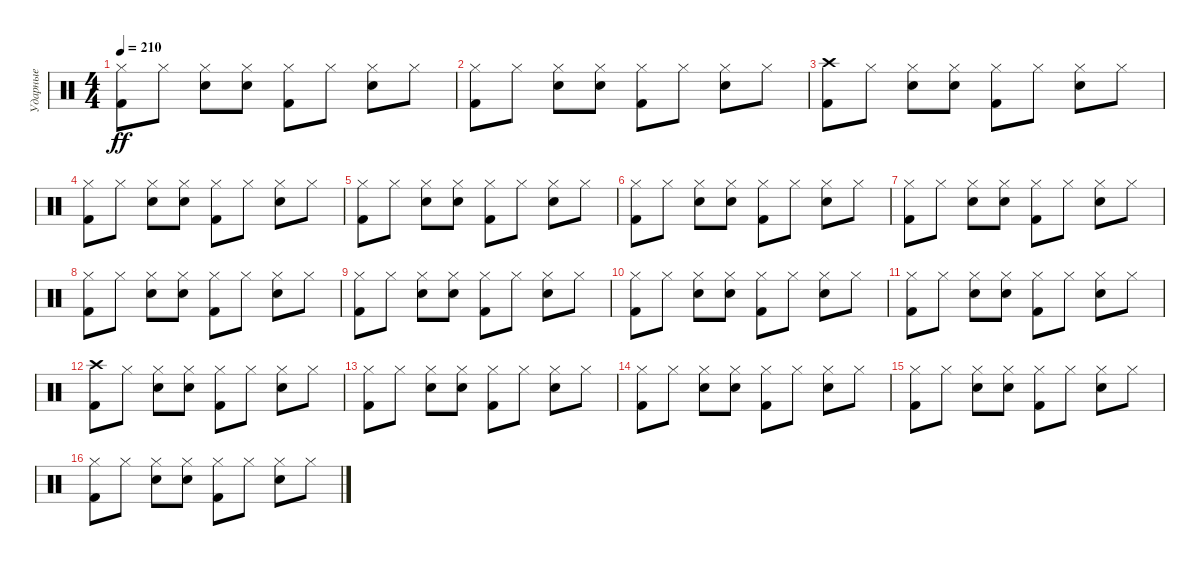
\track ("Ударные" "Ударные") {instrument percussion}
\staff {score}
\articulation defaults
\ts (4 4)
\tempo 210
\clef neutral
\ks c
("Hi-Hat (closed)" "Kick (hit) 2").8{dy ff} "Hi-Hat (closed)".8 ("Hi-Hat (closed)" "Snare (hit) 2").8 ("Hi-Hat (closed)" "Snare (hit) 2").8 ("Hi-Hat (closed)" "Kick (hit) 2").8 "Hi-Hat (closed)".8 ("Hi-Hat (closed)" "Snare (hit) 2").8 "Hi-Hat (closed)".8 |
("Hi-Hat (closed)" "Kick (hit) 2").8 "Hi-Hat (closed)".8 ("Hi-Hat (closed)" "Snare (hit) 2").8 ("Hi-Hat (closed)" "Snare (hit) 2").8 ("Hi-Hat (closed)" "Kick (hit) 2").8 "Hi-Hat (closed)".8 ("Hi-Hat (closed)" "Snare (hit) 2").8 "Hi-Hat (closed)".8 |
("Crash high (hit)" "Kick (hit) 2").8 "Hi-Hat (closed)".8 ("Hi-Hat (closed)" "Snare (hit) 2").8 ("Hi-Hat (closed)" "Snare (hit) 2").8 ("Hi-Hat (closed)" "Kick (hit) 2").8 "Hi-Hat (closed)".8 ("Hi-Hat (closed)" "Snare (hit) 2").8 "Hi-Hat (closed)".8 |
("Hi-Hat (closed)" "Kick (hit) 2").8 "Hi-Hat (closed)".8 ("Hi-Hat (closed)" "Snare (hit) 2").8 ("Hi-Hat (closed)" "Snare (hit) 2").8 ("Hi-Hat (closed)" "Kick (hit) 2").8 "Hi-Hat (closed)".8 ("Hi-Hat (closed)" "Snare (hit) 2").8 "Hi-Hat (closed)".8 |
("Hi-Hat (closed)" "Kick (hit) 2").8 "Hi-Hat (closed)".8 ("Hi-Hat (closed)" "Snare (hit) 2").8 ("Hi-Hat (closed)" "Snare (hit) 2").8 ("Hi-Hat (closed)" "Kick (hit) 2").8 "Hi-Hat (closed)".8 ("Hi-Hat (closed)" "Snare (hit) 2").8 "Hi-Hat (closed)".8 |
("Hi-Hat (closed)" "Kick (hit) 2").8 "Hi-Hat (closed)".8 ("Hi-Hat (closed)" "Snare (hit) 2").8 ("Hi-Hat (closed)" "Snare (hit) 2").8 ("Hi-Hat (closed)" "Kick (hit) 2").8 "Hi-Hat (closed)".8 ("Hi-Hat (closed)" "Snare (hit) 2").8 "Hi-Hat (closed)".8 |
("Hi-Hat (closed)" "Kick (hit) 2").8 "Hi-Hat (closed)".8 ("Hi-Hat (closed)" "Snare (hit) 2").8 ("Hi-Hat (closed)" "Snare (hit) 2").8 ("Hi-Hat (closed)" "Kick (hit) 2").8 "Hi-Hat (closed)".8 ("Hi-Hat (closed)" "Snare (hit) 2").8 "Hi-Hat (closed)".8 |
("Hi-Hat (closed)" "Kick (hit) 2").8 "Hi-Hat (closed)".8 ("Hi-Hat (closed)" "Snare (hit) 2").8 ("Hi-Hat (closed)" "Snare (hit) 2").8 ("Hi-Hat (closed)" "Kick (hit) 2").8 "Hi-Hat (closed)".8 ("Hi-Hat (closed)" "Snare (hit) 2").8 "Hi-Hat (closed)".8 |
("Hi-Hat (closed)" "Kick (hit) 2").8 "Hi-Hat (closed)".8 ("Hi-Hat (closed)" "Snare (hit) 2").8 ("Hi-Hat (closed)" "Snare (hit) 2").8 ("Hi-Hat (closed)" "Kick (hit) 2").8 "Hi-Hat (closed)".8 ("Hi-Hat (closed)" "Snare (hit) 2").8 "Hi-Hat (closed)".8 |
("Hi-Hat (closed)" "Kick (hit) 2").8 "Hi-Hat (closed)".8 ("Hi-Hat (closed)" "Snare (hit) 2").8 ("Hi-Hat (closed)" "Snare (hit) 2").8 ("Hi-Hat (closed)" "Kick (hit) 2").8 "Hi-Hat (closed)".8 ("Hi-Hat (closed)" "Snare (hit) 2").8 "Hi-Hat (closed)".8 |
("Hi-Hat (closed)" "Kick (hit) 2").8 "Hi-Hat (closed)".8 ("Hi-Hat (closed)" "Snare (hit) 2").8 ("Hi-Hat (closed)" "Snare (hit) 2").8 ("Hi-Hat (closed)" "Kick (hit) 2").8 "Hi-Hat (closed)".8 ("Hi-Hat (closed)" "Snare (hit) 2").8 "Hi-Hat (closed)".8 |
("Crash high (hit)" "Kick (hit) 2").8 "Hi-Hat (closed)".8 ("Hi-Hat (closed)" "Snare (hit) 2").8 ("Hi-Hat (closed)" "Snare (hit) 2").8 ("Hi-Hat (closed)" "Kick (hit) 2").8 "Hi-Hat (closed)".8 ("Hi-Hat (closed)" "Snare (hit) 2").8 "Hi-Hat (closed)".8 |
("Hi-Hat (closed)" "Kick (hit) 2").8 "Hi-Hat (closed)".8 ("Hi-Hat (closed)" "Snare (hit) 2").8 ("Hi-Hat (closed)" "Snare (hit) 2").8 ("Hi-Hat (closed)" "Kick (hit) 2").8 "Hi-Hat (closed)".8 ("Hi-Hat (closed)" "Snare (hit) 2").8 "Hi-Hat (closed)".8 |
("Hi-Hat (closed)" "Kick (hit) 2").8 "Hi-Hat (closed)".8 ("Hi-Hat (closed)" "Snare (hit) 2").8 ("Hi-Hat (closed)" "Snare (hit) 2").8 ("Hi-Hat (closed)" "Kick (hit) 2").8 "Hi-Hat (closed)".8 ("Hi-Hat (closed)" "Snare (hit) 2").8 "Hi-Hat (closed)".8 |
("Hi-Hat (closed)" "Kick (hit) 2").8 "Hi-Hat (closed)".8 ("Hi-Hat (closed)" "Snare (hit) 2").8 ("Hi-Hat (closed)" "Snare (hit) 2").8 ("Hi-Hat (closed)" "Kick (hit) 2").8 "Hi-Hat (closed)".8 ("Hi-Hat (closed)" "Snare (hit) 2").8 "Hi-Hat (closed)".8 |
("Hi-Hat (closed)" "Kick (hit) 2").8 "Hi-Hat (closed)".8 ("Hi-Hat (closed)" "Snare (hit) 2").8 ("Hi-Hat (closed)" "Snare (hit) 2").8 ("Hi-Hat (closed)" "Kick (hit) 2").8 "Hi-Hat (closed)".8 ("Hi-Hat (closed)" "Snare (hit) 2").8 "Hi-Hat (closed)".8
